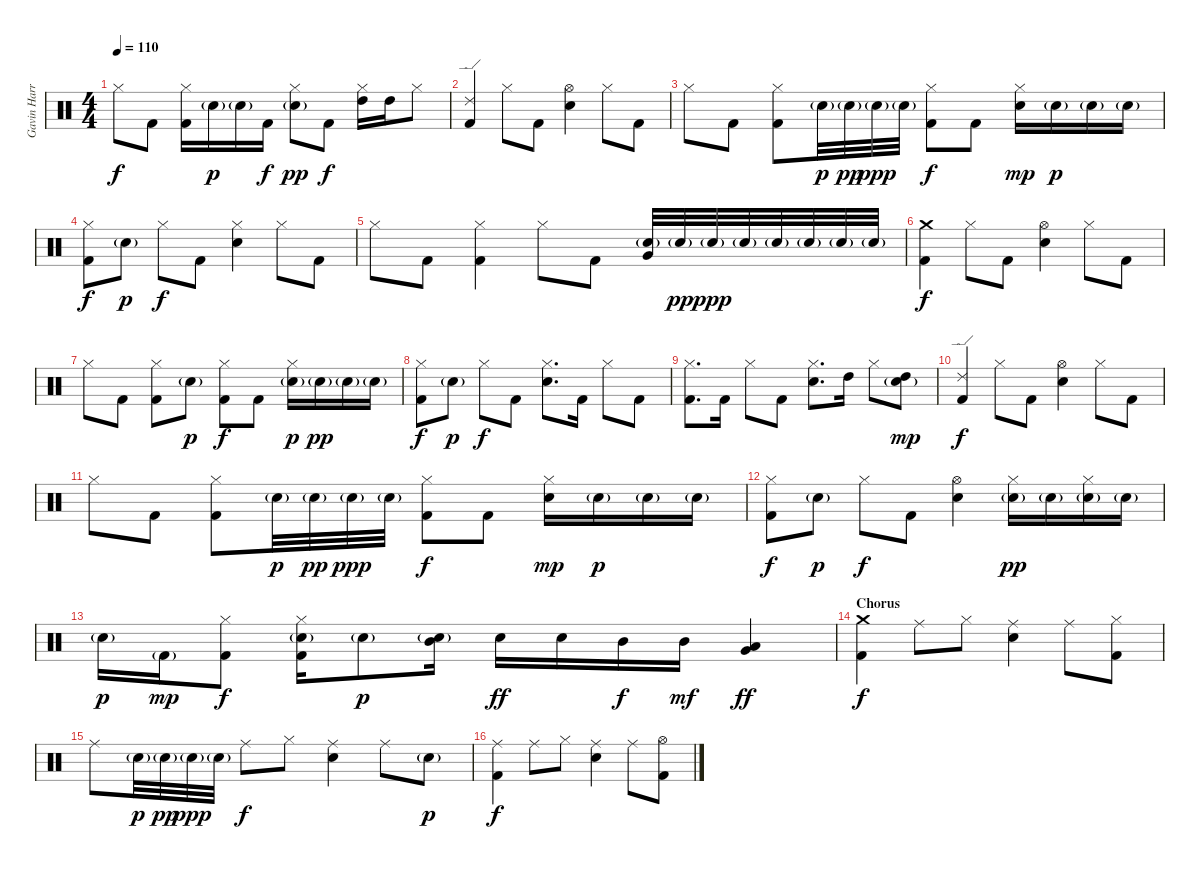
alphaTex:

\track ("Gavin Harrison - Drums" "Gavin Harr") {instrument percussion}
\staff {score}
\articulation defaults
\ts (4 4)
\tempo 110
\clef neutral
\ks c "Hi-Hat (closed)".8{dy f} "Kick (hit) 2".8
("Hi-Hat (closed)" "Kick (hit) 2").16 "Electric Snare (hit)"{g}.16{dy p} "Electric Snare (hit)"{g}.16 "Kick (hit) 2".16{dy f} ("Hi-Hat (closed)" "Electric Snare (hit)"{g}).8{dy pp} "Kick (hit) 2".8{dy f} ("Hi-Hat (closed)" "High Tom (hit)").16 "High Tom (hit)".16 "Hi-Hat (closed)".8 |
("Ride (edge) 2" "Kick (hit) 2").4 "Hi-Hat (closed)".8 "Kick (hit) 2".8 ("Hi-Hat (open)" "Electric Snare (hit)").4 "Hi-Hat (closed)".8 "Kick (hit) 2".8 |
"Hi-Hat (closed)".8 "Kick (hit) 2".8 ("Hi-Hat (closed)" "Kick (hit) 2").8 "Electric Snare (hit)"{g}.32{dy p} "Electric Snare (hit)"{g}.32{dy pp} "Electric Snare (hit)"{g}.32{dy ppp} "Electric Snare (hit)"{g}.32 ("Hi-Hat (closed)" "Kick (hit) 2").8{dy f} "Kick (hit) 2".8 ("Hi-Hat (closed)" "Electric Snare (hit)").16{dy mp} "Electric Snare (hit)"{g}.16{dy p} "Electric Snare (hit)"{g}.16 "Electric Snare (hit)"{g}.16 |
("Hi-Hat (closed)" "Kick (hit) 2").8{dy f} "Electric Snare (hit)"{g}.8{dy p} "Hi-Hat (closed)".8{dy f} "Kick (hit) 2".8 ("Hi-Hat (closed)" "Electric Snare (hit)").4 "Hi-Hat (closed)".8 "Kick (hit) 2".8 |
"Hi-Hat (closed)".8 "Kick (hit) 2".8 ("Hi-Hat (closed)" "Kick (hit) 2").4 "Hi-Hat (closed)".8 "Kick (hit) 2".8 ("Electric Snare (hit)"{g} "Very Low Tom (hit)").32 "Electric Snare (hit)"{g}.32{dy pp} "Electric Snare (hit)"{g}.32{dy ppp} "Electric Snare (hit)"{g}.32 "Electric Snare (hit)"{g}.32 "Electric Snare (hit)"{g}.32 "Electric Snare (hit)"{g}.32 "Electric Snare (hit)"{g}.32 |
("Crash medium (hit)" "Kick (hit) 2").4{dy f} "Hi-Hat (closed)".8 "Kick (hit) 2".8 ("Hi-Hat (open)" "Electric Snare (hit)").4 "Hi-Hat (closed)".8 "Kick (hit) 2".8 |
"Hi-Hat (closed)".8 "Kick (hit) 2".8 ("Hi-Hat (closed)" "Kick (hit) 2").8 "Electric Snare (hit)"{g}.8{dy p} ("Hi-Hat (closed)" "Kick (hit) 2").8{dy f} "Kick (hit) 2".8 ("Hi-Hat (closed)" "Electric Snare (hit)"{g}).16{dy p} "Electric Snare (hit)"{g}.16{dy pp} "Electric Snare (hit)"{g}.16 "Electric Snare (hit)"{g}.16 |
("Hi-Hat (closed)" "Kick (hit) 2").8{dy f} "Electric Snare (hit)"{g}.8{dy p} "Hi-Hat (closed)".8{dy f} "Kick (hit) 2".8 ("Hi-Hat (closed)" "Electric Snare (hit)").8{d} "Kick (hit) 2".16 "Hi-Hat (closed)".8 "Kick (hit) 2".8 |
("Hi-Hat (closed)" "Kick (hit) 2").8{d} "Kick (hit) 2".16 "Hi-Hat (closed)".8 "Kick (hit) 2".8 ("Hi-Hat (closed)" "Electric Snare (hit)").8{d} "High Tom (hit)".16 "Hi-Hat (closed)".8 ("High Tom (hit)" "Electric Snare (hit)"{g}).8{dy mp} |
("Ride (edge) 2" "Kick (hit) 2").4{dy f} "Hi-Hat (closed)".8 "Kick (hit) 2".8 ("Hi-Hat (open)" "Electric Snare (hit)").4 "Hi-Hat (closed)".8 "Kick (hit) 2".8 |
"Hi-Hat (closed)".8 "Kick (hit) 2".8 ("Hi-Hat (closed)" "Kick (hit) 2").8 "Electric Snare (hit)"{g}.32{dy p} "Electric Snare (hit)"{g}.32{dy pp} "Electric Snare (hit)"{g}.32{dy ppp} "Electric Snare (hit)"{g}.32 ("Hi-Hat (closed)" "Kick (hit) 2").8{dy f} "Kick (hit) 2".8 ("Hi-Hat (closed)" "Electric Snare (hit)").16{dy mp} "Electric Snare (hit)"{g}.16{dy p} "Electric Snare (hit)"{g}.16 "Electric Snare (hit)"{g}.16 |
("Hi-Hat (closed)" "Kick (hit) 2").8{dy f} "Electric Snare (hit)"{g}.8{dy p} "Hi-Hat (closed)".8{dy f} "Kick (hit) 2".8 ("Hi-Hat (open)" "Electric Snare (hit)").4 ("Hi-Hat (closed)" "Electric Snare (hit)"{g}).16{dy pp} "Electric Snare (hit)"{g}.16 ("Hi-Hat (closed)" "Electric Snare (hit)"{g}).16 "Electric Snare (hit)"{g}.16 |
"Electric Snare (hit)"{g}.16{dy p} "Kick (hit) 2"{g}.16{dy mp} ("Hi-Hat (closed)" "Kick (hit) 2").8{dy f} ("Hi-Hat (closed)" "Electric Snare (hit)"{g} "Kick (hit) 2").16 "Electric Snare (hit)"{g}.8{dy p} ("Mid Tom (hit)" "Electric Snare (hit)"{g}).16 "Electric Snare (hit)".16{dy ff} "Electric Snare (hit)".16 "Mid Tom (hit)".16{dy f} "Mid Tom (hit)".16{dy mf} ("Very Low Tom (hit)" "Low Floor Tom (hit)").4{dy ff} |
\section ("" "Chorus")
("Crash medium (hit)" "Kick (hit) 2").4{dy f} "Ride (middle)".8 "Hi-Hat (closed)".8 ("Ride (middle)" "Electric Snare (hit)").4 "Ride (middle)".8 ("Hi-Hat (closed)" "Kick (hit) 2").8 |
"Ride (middle)".8 "Electric Snare (hit)"{g}.32{dy p} "Electric Snare (hit)"{g}.32{dy pp} "Electric Snare (hit)"{g}.32{dy ppp} "Electric Snare (hit)"{g}.32 "Ride (middle)".8{dy f} "Hi-Hat (closed)".8 ("Ride (middle)" "Electric Snare (hit)").4 "Ride (middle)".8 "Electric Snare (hit)"{g}.8{dy p} |
("Ride (middle)" "Kick (hit) 2").4{dy f} "Ride (middle)".8 "Hi-Hat (closed)".8 ("Ride (middle)" "Electric Snare (hit)").4 "Ride (middle)".8 ("Hi-Hat (open)" "Kick (hit) 2").8
